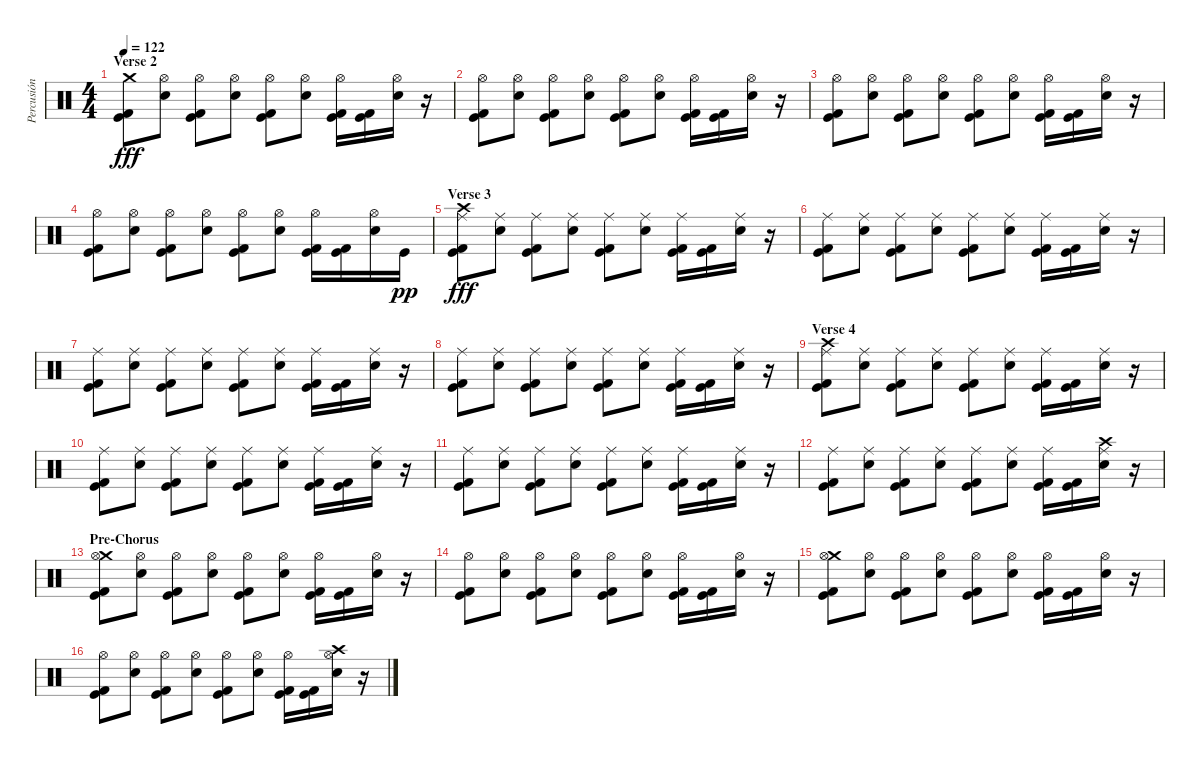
\track ("Percusión" "Percusión") {instrument percussion}
\staff {score}
\articulation defaults
\ts (4 4)
\section ("" "Verse 2")
\tempo 122
\clef neutral
\ks c
("Crash medium (hit)" "Kick (hit)" "Kick (hit) 2").8{dy fff} ("Hi-Hat (open)" "Electric Snare (hit)").8 ("Hi-Hat (open)" "Kick (hit)" "Kick (hit) 2").8 ("Hi-Hat (open)" "Electric Snare (hit)").8 ("Hi-Hat (open)" "Kick (hit)" "Kick (hit) 2").8 ("Hi-Hat (open)" "Electric Snare (hit)").8 ("Hi-Hat (open)" "Kick (hit)" "Kick (hit) 2").16 ("Kick (hit)" "Kick (hit) 2").16 ("Hi-Hat (open)" "Electric Snare (hit)").16 r.16 |
("Hi-Hat (open)" "Kick (hit)" "Kick (hit) 2").8 ("Hi-Hat (open)" "Electric Snare (hit)").8 ("Hi-Hat (open)" "Kick (hit)" "Kick (hit) 2").8 ("Hi-Hat (open)" "Electric Snare (hit)").8 ("Hi-Hat (open)" "Kick (hit)" "Kick (hit) 2").8 ("Hi-Hat (open)" "Electric Snare (hit)").8 ("Hi-Hat (open)" "Kick (hit)" "Kick (hit) 2").16 ("Kick (hit)" "Kick (hit) 2").16 ("Hi-Hat (open)" "Electric Snare (hit)").16 r.16 |
("Hi-Hat (open)" "Kick (hit)" "Kick (hit) 2").8 ("Hi-Hat (open)" "Electric Snare (hit)").8 ("Hi-Hat (open)" "Kick (hit)" "Kick (hit) 2").8 ("Hi-Hat (open)" "Electric Snare (hit)").8 ("Hi-Hat (open)" "Kick (hit)" "Kick (hit) 2").8 ("Hi-Hat (open)" "Electric Snare (hit)").8 ("Hi-Hat (open)" "Kick (hit)" "Kick (hit) 2").16 ("Kick (hit)" "Kick (hit) 2").16 ("Hi-Hat (open)" "Electric Snare (hit)").16 r.16 |
("Hi-Hat (open)" "Kick (hit)" "Kick (hit) 2").8 ("Hi-Hat (open)" "Electric Snare (hit)").8 ("Hi-Hat (open)" "Kick (hit)" "Kick (hit) 2").8 ("Hi-Hat (open)" "Electric Snare (hit)").8 ("Hi-Hat (open)" "Kick (hit)" "Kick (hit) 2").8 ("Hi-Hat (open)" "Electric Snare (hit)").8 ("Hi-Hat (open)" "Kick (hit)" "Kick (hit) 2").16 ("Kick (hit)" "Kick (hit) 2").16 ("Hi-Hat (open)" "Electric Snare (hit)").16 "Kick (hit)".16{dy pp} |
\section ("" "Verse 3")
("Crash high (hit)" "Ride (middle)" "Kick (hit)" "Kick (hit) 2").8{dy fff} ("Ride (middle)" "Electric Snare (hit)").8 ("Ride (middle)" "Kick (hit)" "Kick (hit) 2").8 ("Ride (middle)" "Electric Snare (hit)").8 ("Ride (middle)" "Kick (hit)" "Kick (hit) 2").8 ("Ride (middle)" "Electric Snare (hit)").8 ("Ride (middle)" "Kick (hit)" "Kick (hit) 2").16 ("Kick (hit)" "Kick (hit) 2").16 ("Ride (middle)" "Electric Snare (hit)").16 r.16 |
("Ride (middle)" "Kick (hit)" "Kick (hit) 2").8 ("Ride (middle)" "Electric Snare (hit)").8 ("Ride (middle)" "Kick (hit)" "Kick (hit) 2").8 ("Ride (middle)" "Electric Snare (hit)").8 ("Ride (middle)" "Kick (hit)" "Kick (hit) 2").8 ("Ride (middle)" "Electric Snare (hit)").8 ("Ride (middle)" "Kick (hit)" "Kick (hit) 2").16 ("Kick (hit)" "Kick (hit) 2").16 ("Ride (middle)" "Electric Snare (hit)").16 r.16 |
("Ride (middle)" "Kick (hit)" "Kick (hit) 2").8 ("Ride (middle)" "Electric Snare (hit)").8 ("Ride (middle)" "Kick (hit)" "Kick (hit) 2").8 ("Ride (middle)" "Electric Snare (hit)").8 ("Ride (middle)" "Kick (hit)" "Kick (hit) 2").8 ("Ride (middle)" "Electric Snare (hit)").8 ("Ride (middle)" "Kick (hit)" "Kick (hit) 2").16 ("Kick (hit)" "Kick (hit) 2").16 ("Ride (middle)" "Electric Snare (hit)").16 r.16 |
("Ride (middle)" "Kick (hit)" "Kick (hit) 2").8 ("Ride (middle)" "Electric Snare (hit)").8 ("Ride (middle)" "Kick (hit)" "Kick (hit) 2").8 ("Ride (middle)" "Electric Snare (hit)").8 ("Ride (middle)" "Kick (hit)" "Kick (hit) 2").8 ("Ride (middle)" "Electric Snare (hit)").8 ("Ride (middle)" "Kick (hit)" "Kick (hit) 2").16 ("Kick (hit)" "Kick (hit) 2").16 ("Ride (middle)" "Electric Snare (hit)").16 r.16 |
\section ("" "Verse 4")
("Crash high (hit)" "Ride (middle)" "Kick (hit)" "Kick (hit) 2").8 ("Ride (middle)" "Electric Snare (hit)").8 ("Ride (middle)" "Kick (hit)" "Kick (hit) 2").8 ("Ride (middle)" "Electric Snare (hit)").8 ("Ride (middle)" "Kick (hit)" "Kick (hit) 2").8 ("Ride (middle)" "Electric Snare (hit)").8 ("Ride (middle)" "Kick (hit)" "Kick (hit) 2").16 ("Kick (hit)" "Kick (hit) 2").16 ("Ride (middle)" "Electric Snare (hit)").16 r.16 |
("Ride (middle)" "Kick (hit)" "Kick (hit) 2").8 ("Ride (middle)" "Electric Snare (hit)").8 ("Ride (middle)" "Kick (hit)" "Kick (hit) 2").8 ("Ride (middle)" "Electric Snare (hit)").8 ("Ride (middle)" "Kick (hit)" "Kick (hit) 2").8 ("Ride (middle)" "Electric Snare (hit)").8 ("Ride (middle)" "Kick (hit)" "Kick (hit) 2").16 ("Kick (hit)" "Kick (hit) 2").16 ("Ride (middle)" "Electric Snare (hit)").16 r.16 |
("Ride (middle)" "Kick (hit)" "Kick (hit) 2").8 ("Ride (middle)" "Electric Snare (hit)").8 ("Ride (middle)" "Kick (hit)" "Kick (hit) 2").8 ("Ride (middle)" "Electric Snare (hit)").8 ("Ride (middle)" "Kick (hit)" "Kick (hit) 2").8 ("Ride (middle)" "Electric Snare (hit)").8 ("Ride (middle)" "Kick (hit)" "Kick (hit) 2").16 ("Kick (hit)" "Kick (hit) 2").16 ("Ride (middle)" "Electric Snare (hit)").16 r.16 |
("Ride (middle)" "Kick (hit)" "Kick (hit) 2").8 ("Ride (middle)" "Electric Snare (hit)").8 ("Ride (middle)" "Kick (hit)" "Kick (hit) 2").8 ("Ride (middle)" "Electric Snare (hit)").8 ("Ride (middle)" "Kick (hit)" "Kick (hit) 2").8 ("Ride (middle)" "Electric Snare (hit)").8 ("Ride (middle)" "Kick (hit)" "Kick (hit) 2").16 ("Kick (hit)" "Kick (hit) 2").16 ("Crash high (hit)" "Ride (middle)" "Electric Snare (hit)").16 r.16 |
\section ("" "Pre-Chorus")
("Crash medium (hit)" "Hi-Hat (open)" "Kick (hit)" "Kick (hit) 2").8 ("Hi-Hat (open)" "Electric Snare (hit)").8 ("Hi-Hat (open)" "Kick (hit)" "Kick (hit) 2").8 ("Hi-Hat (open)" "Electric Snare (hit)").8 ("Hi-Hat (open)" "Kick (hit)" "Kick (hit) 2").8 ("Hi-Hat (open)" "Electric Snare (hit)").8 ("Hi-Hat (open)" "Kick (hit)" "Kick (hit) 2").16 ("Kick (hit)" "Kick (hit) 2").16 ("Hi-Hat (open)" "Electric Snare (hit)").16 r.16 |
("Hi-Hat (open)" "Kick (hit)" "Kick (hit) 2").8 ("Hi-Hat (open)" "Electric Snare (hit)").8 ("Hi-Hat (open)" "Kick (hit)" "Kick (hit) 2").8 ("Hi-Hat (open)" "Electric Snare (hit)").8 ("Hi-Hat (open)" "Kick (hit)" "Kick (hit) 2").8 ("Hi-Hat (open)" "Electric Snare (hit)").8 ("Hi-Hat (open)" "Kick (hit)" "Kick (hit) 2").16 ("Kick (hit)" "Kick (hit) 2").16 ("Hi-Hat (open)" "Electric Snare (hit)").16 r.16 |
("Crash medium (hit)" "Hi-Hat (open)" "Kick (hit)" "Kick (hit) 2").8 ("Hi-Hat (open)" "Electric Snare (hit)").8 ("Hi-Hat (open)" "Kick (hit)" "Kick (hit) 2").8 ("Hi-Hat (open)" "Electric Snare (hit)").8 ("Hi-Hat (open)" "Kick (hit)" "Kick (hit) 2").8 ("Hi-Hat (open)" "Electric Snare (hit)").8 ("Hi-Hat (open)" "Kick (hit)" "Kick (hit) 2").16 ("Kick (hit)" "Kick (hit) 2").16 ("Hi-Hat (open)" "Electric Snare (hit)").16 r.16 |
("Hi-Hat (open)" "Kick (hit)" "Kick (hit) 2").8 ("Hi-Hat (open)" "Electric Snare (hit)").8 ("Hi-Hat (open)" "Kick (hit)" "Kick (hit) 2").8 ("Hi-Hat (open)" "Electric Snare (hit)").8 ("Hi-Hat (open)" "Kick (hit)" "Kick (hit) 2").8 ("Hi-Hat (open)" "Electric Snare (hit)").8 ("Hi-Hat (open)" "Kick (hit)" "Kick (hit) 2").16 ("Kick (hit)" "Kick (hit) 2").16 ("Crash high (hit)" "Hi-Hat (open)" "Electric Snare (hit)").16 r.16
